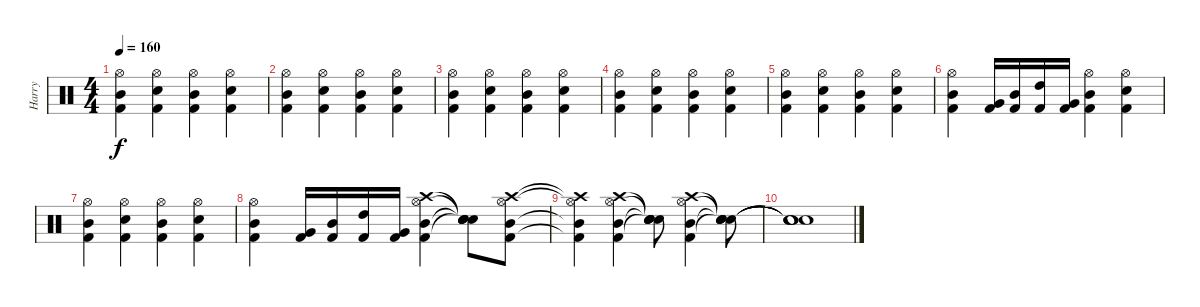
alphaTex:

\track ("Harry" "Harry") {instrument percussion}
\staff {score}
\articulation defaults
\ts (4 4)
\tempo 160
\clef neutral
\ks c
("Hi-Hat (open)" "Mid Tom (hit)" "Kick (hit) 2").4{dy f} ("Hi-Hat (open)" "Kick (hit) 2" "Snare (hit) 2").4 ("Hi-Hat (open)" "Mid Tom (hit)" "Kick (hit) 2").4 ("Hi-Hat (open)" "Kick (hit) 2" "Snare (hit) 2").4 |
("Hi-Hat (open)" "Mid Tom (hit)" "Kick (hit) 2").4 ("Hi-Hat (open)" "Kick (hit) 2" "Snare (hit) 2").4 ("Hi-Hat (open)" "Mid Tom (hit)" "Kick (hit) 2").4 ("Hi-Hat (open)" "Kick (hit) 2" "Snare (hit) 2").4 |
("Hi-Hat (open)" "Mid Tom (hit)" "Kick (hit) 2").4 ("Hi-Hat (open)" "Kick (hit) 2" "Snare (hit) 2").4 ("Hi-Hat (open)" "Mid Tom (hit)" "Kick (hit) 2").4 ("Hi-Hat (open)" "Kick (hit) 2" "Snare (hit) 2").4 |
("Hi-Hat (open)" "Mid Tom (hit)" "Kick (hit) 2").4 ("Hi-Hat (open)" "Kick (hit) 2" "Snare (hit) 2").4 ("Hi-Hat (open)" "Mid Tom (hit)" "Kick (hit) 2").4 ("Hi-Hat (open)" "Kick (hit) 2" "Snare (hit) 2").4 |
("Hi-Hat (open)" "Mid Tom (hit)" "Kick (hit) 2").4 ("Hi-Hat (open)" "Kick (hit) 2" "Snare (hit) 2").4 ("Hi-Hat (open)" "Mid Tom (hit)" "Kick (hit) 2").4 ("Hi-Hat (open)" "Kick (hit) 2" "Snare (hit) 2").4 |
("Hi-Hat (open)" "Mid Tom (hit)" "Kick (hit) 2").4 ("Very Low Tom (hit)" "Kick (hit) 2").16 ("Mid Tom (hit)" "Kick (hit) 2").16 ("High Tom (hit)" "Kick (hit) 2").16 ("Very Low Tom (hit)" "Kick (hit) 2").16 ("Hi-Hat (open)" "Mid Tom (hit)" "Kick (hit) 2").4 ("Hi-Hat (open)" "Kick (hit) 2" "Snare (hit) 2").4 |
("Hi-Hat (open)" "Mid Tom (hit)" "Kick (hit) 2").4 ("Hi-Hat (open)" "Kick (hit) 2" "Snare (hit) 2").4 ("Hi-Hat (open)" "Mid Tom (hit)" "Kick (hit) 2").4 ("Hi-Hat (open)" "Kick (hit) 2" "Snare (hit) 2").4 |
("Hi-Hat (open)" "Mid Tom (hit)" "Kick (hit) 2").4 ("Very Low Tom (hit)" "Kick (hit) 2").16 ("Mid Tom (hit)" "Kick (hit) 2").16 ("High Tom (hit)" "Kick (hit) 2").16 ("Very Low Tom (hit)" "Kick (hit) 2").16 ("Hi-Hat (open)" "Crash high (hit)" "Mid Tom (hit)" "Kick (hit) 2").4 ("Snare (hit)"{t} "Snare (hit)"{t} "Snare (hit)"{t} "Snare (hit)"{t}).8 ("Hi-Hat (open)" "Crash high (hit)" "Mid Tom (hit)" "Kick (hit) 2").8 |
("Hi-Hat (open)"{t} "Crash high (hit)"{t} "Mid Tom (hit)"{t} "Kick (hit) 2"{t}).4 ("Hi-Hat (open)" "Crash high (hit)" "Mid Tom (hit)" "Kick (hit) 2").4 ("Snare (hit)"{t} "Snare (hit)"{t} "Snare (hit)"{t} "Snare (hit)"{t}).8 ("Hi-Hat (open)" "Crash high (hit)" "Mid Tom (hit)" "Kick (hit) 2").4 ("Snare (hit)"{t} "Snare (hit)"{t} "Snare (hit)"{t} "Snare (hit)"{t}).8 |
("Snare (hit)"{t} "Snare (hit)"{t} "Snare (hit)"{t} "Snare (hit)"{t}).1
